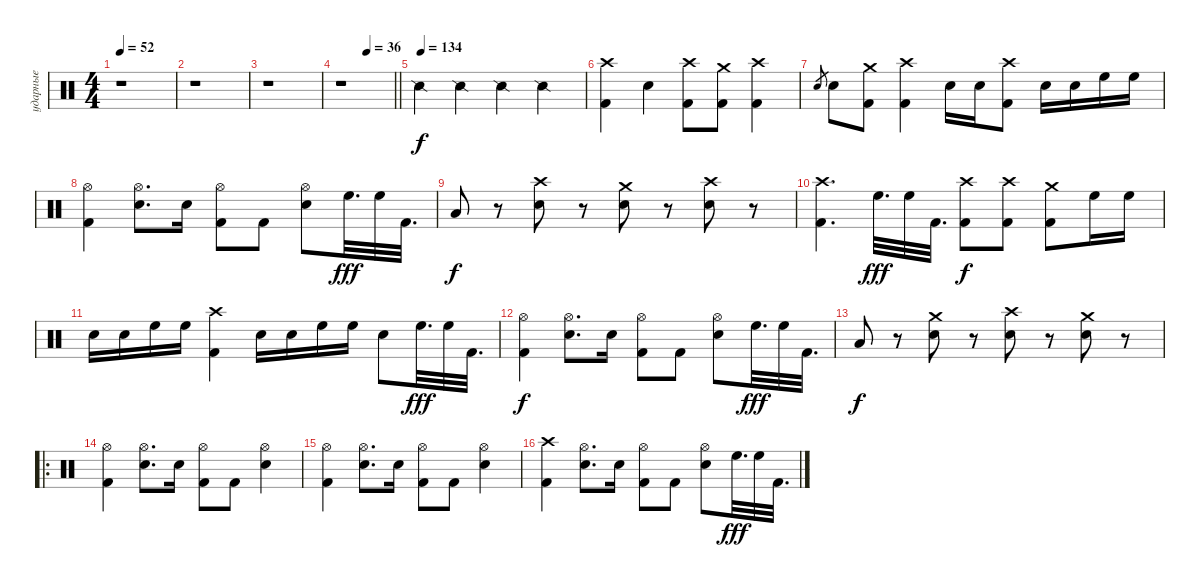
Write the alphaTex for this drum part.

\track ("ударные" "ударные") {instrument percussion}
\staff {score}
\articulation defaults
\ts (4 4)
\tempo 52
\clef neutral
\ks aminor
r.1{dy f} |
r.1 |
r.1 |
\tempo (36 0.5)
\barLineRight lightlight
r.1 |
\tempo (134)
"Snare (side stick) 2".4 "Snare (side stick) 2".4 "Snare (side stick) 2".4 "Snare (side stick) 2".4 |
("Crash high (hit)" "Kick (hit) 2").4 "Snare (hit) 2".4 ("Crash high (hit)" "Kick (hit) 2").8 ("Crash medium (hit)" "Kick (hit) 2").8 ("Crash high (hit)" "Kick (hit) 2").4 |
"Electric Snare (hit)".8{gr} "Snare (hit) 2".8 ("Crash medium (hit)" "Kick (hit) 2").8 ("Crash high (hit)" "Kick (hit) 2").4 "Snare (hit) 2".16 "Snare (hit) 2".16 ("Crash high (hit)" "Kick (hit) 2").8 "Snare (hit) 2".16 "Snare (hit) 2".16 "High Floor Tom (hit)".16 "High Floor Tom (hit)".16 |
("Hi-Hat (open)" "Kick (hit) 2").4 ("Hi-Hat (open)" "Snare (hit) 2").8{d} "Snare (hit) 2".16 ("Hi-Hat (open)" "Kick (hit) 2").8 "Kick (hit) 2".8 ("Hi-Hat (open)" "Snare (hit) 2").8 "High Floor Tom (hit)".32{d dy fff} "High Floor Tom (hit)".32 "Kick (hit) 2".32{d} |
"Low Floor Tom (hit)".8{dy f} r.8 ("Crash high (hit)" "Snare (hit) 2").8 r.8 ("Crash medium (hit)" "Snare (hit) 2").8 r.8 ("Crash high (hit)" "Snare (hit) 2").8 r.8 |
("Crash high (hit)" "Kick (hit) 2").4{d} "High Floor Tom (hit)".32{d dy fff} "High Floor Tom (hit)".32 "Kick (hit) 2".32{d} ("Crash high (hit)" "Kick (hit) 2").8{dy f} ("Crash high (hit)" "Kick (hit) 2").8 ("Crash medium (hit)" "Kick (hit) 2").8 "High Floor Tom (hit)".16 "High Floor Tom (hit)".16 |
"Electric Snare (hit)".16 "Electric Snare (hit)".16 "High Floor Tom (hit)".16 "High Floor Tom (hit)".16 ("Crash high (hit)" "Kick (hit) 2").4 "Electric Snare (hit)".16 "Electric Snare (hit)".16 "High Floor Tom (hit)".16 "High Floor Tom (hit)".16 "Electric Snare (hit)".8 "High Floor Tom (hit)".32{d dy fff} "High Floor Tom (hit)".32 "Kick (hit) 2".32{d} |
("Hi-Hat (open)" "Kick (hit) 2").4{dy f} ("Hi-Hat (open)" "Snare (hit) 2").8{d} "Snare (hit) 2".16 ("Hi-Hat (open)" "Kick (hit) 2").8 "Kick (hit) 2".8 ("Hi-Hat (open)" "Snare (hit) 2").8 "High Floor Tom (hit)".32{d dy fff} "High Floor Tom (hit)".32 "Kick (hit) 2".32{d} |
"Low Floor Tom (hit)".8{dy f} r.8 ("Crash medium (hit)" "Electric Snare (hit)").8 r.8 ("Crash high (hit)" "Electric Snare (hit)").8 r.8 ("Crash medium (hit)" "Electric Snare (hit)").8 r.8 |
\ro
("Hi-Hat (open)" "Kick (hit) 2").4 ("Hi-Hat (open)" "Electric Snare (hit)").8{d} "Snare (hit) 2".16 ("Hi-Hat (open)" "Kick (hit) 2").8 "Kick (hit) 2".8 ("Hi-Hat (open)" "Electric Snare (hit)").4 |
("Hi-Hat (open)" "Kick (hit) 2").4 ("Hi-Hat (open)" "Electric Snare (hit)").8{d} "Snare (hit) 2".16 ("Hi-Hat (open)" "Kick (hit) 2").8 "Kick (hit) 2".8 ("Hi-Hat (open)" "Electric Snare (hit)").4 |
("Crash high (hit)" "Kick (hit) 2").4 ("Hi-Hat (open)" "Electric Snare (hit)").8{d} "Snare (hit) 2".16 ("Hi-Hat (open)" "Kick (hit) 2").8 "Kick (hit) 2".8 ("Hi-Hat (open)" "Electric Snare (hit)").8 "High Floor Tom (hit)".32{d dy fff} "High Floor Tom (hit)".32 "Kick (hit) 2".32{d}
